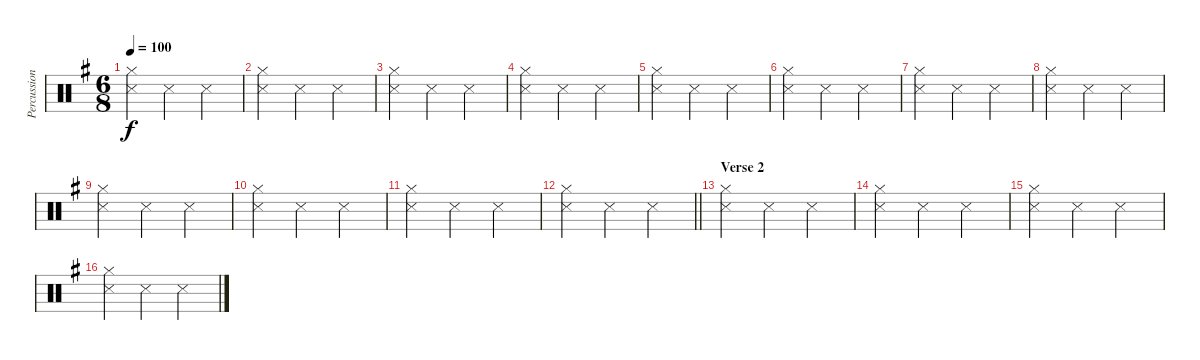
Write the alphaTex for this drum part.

\track ("Percussion" "Percussion") {mute instrument percussion}
\staff {score}
\articulation defaults
\ts (6 8)
\tempo 100
\clef neutral
\ks g
("Hi-Hat (closed)" "Snare (side stick) 3").4{dy f} "Snare (side stick) 3".4 "Snare (side stick) 3".4 |
("Hi-Hat (closed)" "Snare (side stick) 3").4 "Snare (side stick) 3".4 "Snare (side stick) 3".4 |
("Hi-Hat (closed)" "Snare (side stick) 3").4 "Snare (side stick) 3".4 "Snare (side stick) 3".4 |
("Hi-Hat (closed)" "Snare (side stick) 3").4 "Snare (side stick) 3".4 "Snare (side stick) 3".4 |
("Hi-Hat (closed)" "Snare (side stick) 3").4 "Snare (side stick) 3".4 "Snare (side stick) 3".4 |
("Hi-Hat (closed)" "Snare (side stick) 3").4 "Snare (side stick) 3".4 "Snare (side stick) 3".4 |
("Hi-Hat (closed)" "Snare (side stick) 3").4 "Snare (side stick) 3".4 "Snare (side stick) 3".4 |
("Hi-Hat (closed)" "Snare (side stick) 3").4 "Snare (side stick) 3".4 "Snare (side stick) 3".4 |
("Hi-Hat (closed)" "Snare (side stick) 3").4 "Snare (side stick) 3".4 "Snare (side stick) 3".4 |
("Hi-Hat (closed)" "Snare (side stick) 3").4 "Snare (side stick) 3".4 "Snare (side stick) 3".4 |
("Hi-Hat (closed)" "Snare (side stick) 3").4 "Snare (side stick) 3".4 "Snare (side stick) 3".4 |
\barLineRight lightlight
("Hi-Hat (closed)" "Snare (side stick) 3").4 "Snare (side stick) 3".4 "Snare (side stick) 3".4 |
\section ("" "Verse 2")
("Hi-Hat (closed)" "Snare (side stick) 3").4 "Snare (side stick) 3".4 "Snare (side stick) 3".4 |
("Hi-Hat (closed)" "Snare (side stick) 3").4 "Snare (side stick) 3".4 "Snare (side stick) 3".4 |
("Hi-Hat (closed)" "Snare (side stick) 3").4 "Snare (side stick) 3".4 "Snare (side stick) 3".4 |
("Hi-Hat (closed)" "Snare (side stick) 3").4 "Snare (side stick) 3".4 "Snare (side stick) 3".4
